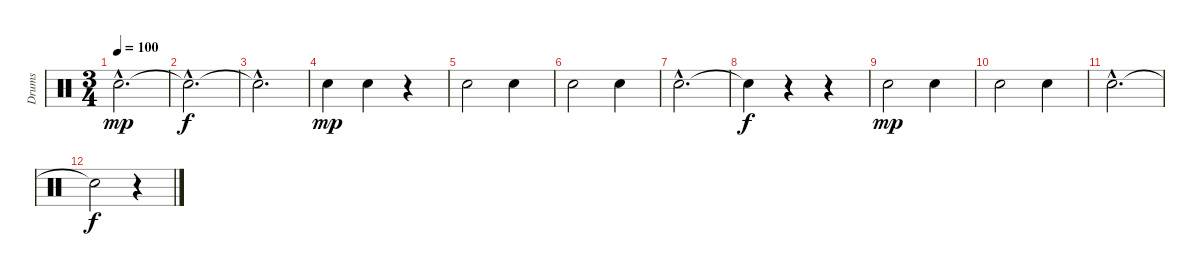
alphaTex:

\track ("Drums" "Drums") {instrument percussion}
\staff {score}
\articulation defaults
\ts (3 4)
\tempo 100
\clef neutral
\ks c "Electric Snare (hit)"{tr (40 64) hac}.2{d dy mp}
|
"Snare (hit)"{hac t}.2{d dy f} |
"Snare (hit)"{hac t}.2{d} |
"Electric Snare (hit)"{tr (40 64)}.4{dy mp} "Electric Snare (hit)"{tr (40 64)}.4 r.4 |
"Electric Snare (hit)"{tr (40 64)}.2 "Electric Snare (hit)"{tr (40 64)}.4 |
"Electric Snare (hit)"{tr (40 64)}.2 "Electric Snare (hit)"{tr (40 64)}.4 |
"Electric Snare (hit)"{tr (40 64) hac}.2{d} |
"Snare (hit)"{t}.4{dy f} r.4 r.4 |
"Electric Snare (hit)"{tr (40 64)}.2{dy mp} "Electric Snare (hit)"{tr (40 64)}.4 |
"Electric Snare (hit)"{tr (40 64)}.2 "Electric Snare (hit)"{tr (40 64)}.4 |
"Electric Snare (hit)"{tr (40 64) hac}.2{d} |
"Snare (hit)"{t}.2{dy f} r.4
